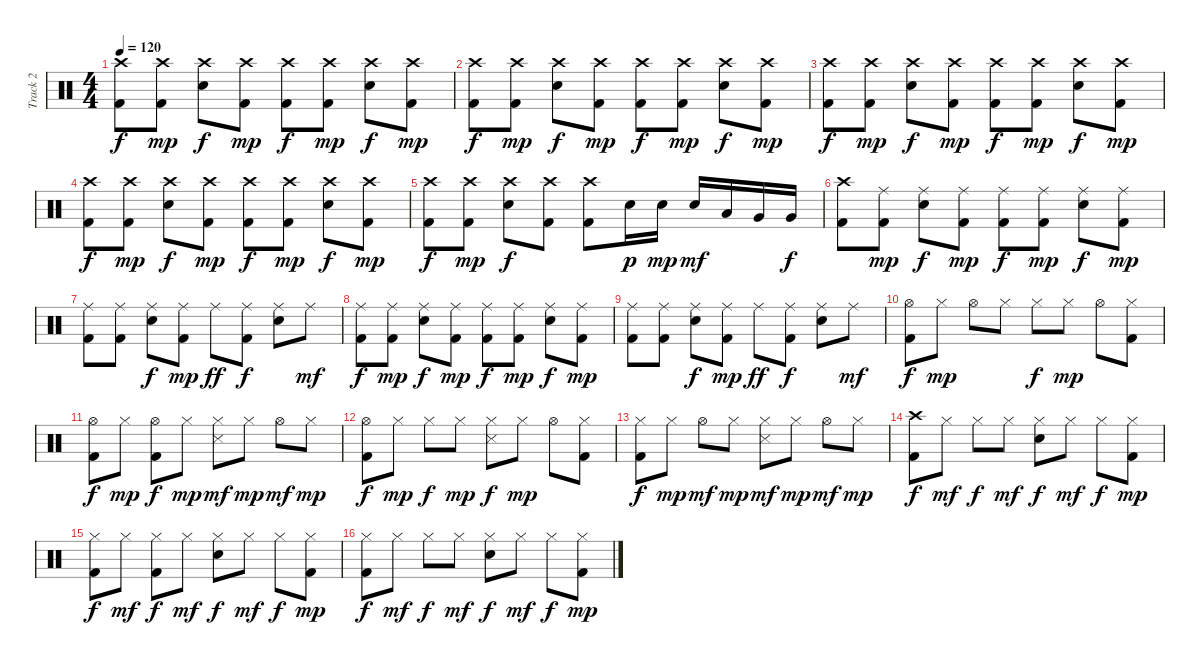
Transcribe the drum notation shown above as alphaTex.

\track ("Track 2" "Track 2") {instrument percussion}
\staff {score}
\articulation defaults
\ts (4 4)
\tempo 120
\clef neutral
\ks c
("Crash high (hit)" "Kick (hit) 2").8{dy f} ("Crash high (hit)" "Kick (hit) 2").8{dy mp} ("Crash high (hit)" "Electric Snare (hit)").8{dy f} ("Crash high (hit)" "Kick (hit) 2").8{dy mp} ("Crash high (hit)" "Kick (hit) 2").8{dy f} ("Crash high (hit)" "Kick (hit) 2").8{dy mp} ("Crash high (hit)" "Electric Snare (hit)").8{dy f} ("Crash high (hit)" "Kick (hit) 2").8{dy mp} |
("Crash high (hit)" "Kick (hit) 2").8{dy f} ("Crash high (hit)" "Kick (hit) 2").8{dy mp} ("Crash high (hit)" "Electric Snare (hit)").8{dy f} ("Crash high (hit)" "Kick (hit) 2").8{dy mp} ("Crash high (hit)" "Kick (hit) 2").8{dy f} ("Crash high (hit)" "Kick (hit) 2").8{dy mp} ("Crash high (hit)" "Electric Snare (hit)").8{dy f} ("Crash high (hit)" "Kick (hit) 2").8{dy mp} |
("Crash high (hit)" "Kick (hit) 2").8{dy f} ("Crash high (hit)" "Kick (hit) 2").8{dy mp} ("Crash high (hit)" "Electric Snare (hit)").8{dy f} ("Crash high (hit)" "Kick (hit) 2").8{dy mp} ("Crash high (hit)" "Kick (hit) 2").8{dy f} ("Crash high (hit)" "Kick (hit) 2").8{dy mp} ("Crash high (hit)" "Electric Snare (hit)").8{dy f} ("Crash high (hit)" "Kick (hit) 2").8{dy mp} |
("Crash high (hit)" "Kick (hit) 2").8{dy f} ("Crash high (hit)" "Kick (hit) 2").8{dy mp} ("Crash high (hit)" "Electric Snare (hit)").8{dy f} ("Crash high (hit)" "Kick (hit) 2").8{dy mp} ("Crash high (hit)" "Kick (hit) 2").8{dy f} ("Crash high (hit)" "Kick (hit) 2").8{dy mp} ("Crash high (hit)" "Electric Snare (hit)").8{dy f} ("Crash high (hit)" "Kick (hit) 2").8{dy mp} |
("Crash high (hit)" "Kick (hit) 2").8{dy f} ("Crash high (hit)" "Kick (hit) 2").8{dy mp} ("Crash high (hit)" "Electric Snare (hit)").8{dy f} ("Crash high (hit)" "Kick (hit) 2").8 ("Crash high (hit)" "Kick (hit) 2").8 "Electric Snare (hit)".16{dy p} "Electric Snare (hit)".16{dy mp} "Electric Snare (hit)".16{dy mf} "Low Tom (hit)".16 "Very Low Tom (hit)".16 "Very Low Tom (hit)".16{dy f} |
("Crash high (hit)" "Kick (hit) 2").8 ("Ride (middle)" "Kick (hit) 2").8{dy mp} ("Ride (middle)" "Electric Snare (hit)").8{dy f} ("Ride (middle)" "Kick (hit) 2").8{dy mp} ("Ride (middle)" "Kick (hit) 2").8{dy f} ("Ride (middle)" "Kick (hit) 2").8{dy mp} ("Ride (middle)" "Electric Snare (hit)").8{dy f} ("Ride (middle)" "Kick (hit) 2").8{dy mp} |
("Ride (middle)" "Kick (hit) 2").8 ("Ride (middle)" "Kick (hit) 2").8 ("Ride (middle)" "Electric Snare (hit)").8{dy f} ("Ride (middle)" "Kick (hit) 2").8{dy mp} "Ride (middle)".8{dy ff} ("Ride (middle)" "Kick (hit) 2").8{dy f} ("Ride (middle)" "Electric Snare (hit)").8 "Ride (middle)".8{dy mf} |
("Ride (middle)" "Kick (hit) 2").8{dy f} ("Ride (middle)" "Kick (hit) 2").8{dy mp} ("Ride (middle)" "Electric Snare (hit)").8{dy f} ("Ride (middle)" "Kick (hit) 2").8{dy mp} ("Ride (middle)" "Kick (hit) 2").8{dy f} ("Ride (middle)" "Kick (hit) 2").8{dy mp} ("Ride (middle)" "Electric Snare (hit)").8{dy f} ("Ride (middle)" "Kick (hit) 2").8{dy mp} |
("Ride (middle)" "Kick (hit) 2").8 ("Ride (middle)" "Kick (hit) 2").8 ("Ride (middle)" "Electric Snare (hit)").8{dy f} ("Ride (middle)" "Kick (hit) 2").8{dy mp} "Ride (middle)".8{dy ff} ("Ride (middle)" "Kick (hit) 2").8{dy f} ("Ride (middle)" "Electric Snare (hit)").8 "Ride (middle)".8{dy mf} |
("Hi-Hat (open)" "Kick (hit) 2").8{dy f} "Hi-Hat (closed)".8{dy mp} "Hi-Hat (open)".8 "Hi-Hat (closed)".8 "Hi-Hat (closed)".8{dy f} "Hi-Hat (closed)".8{dy mp} "Hi-Hat (open)".8 ("Hi-Hat (closed)" "Kick (hit) 2").8 |
("Hi-Hat (open)" "Kick (hit) 2").8{dy f} "Hi-Hat (closed)".8{dy mp} ("Hi-Hat (open)" "Kick (hit) 2").8{dy f} "Hi-Hat (closed)".8{dy mp} ("Hi-Hat (closed)" "Snare (side stick) 3").8{dy mf} "Hi-Hat (closed)".8{dy mp} "Hi-Hat (open)".8{dy mf} "Hi-Hat (closed)".8{dy mp} |
("Hi-Hat (open)" "Kick (hit) 2").8{dy f} "Hi-Hat (closed)".8{dy mp} "Hi-Hat (closed)".8{dy f} "Hi-Hat (closed)".8{dy mp} ("Hi-Hat (closed)" "Snare (side stick) 3").8{dy f} "Hi-Hat (closed)".8{dy mp} "Hi-Hat (open)".8 ("Hi-Hat (closed)" "Kick (hit) 2").8 |
("Hi-Hat (closed)" "Kick (hit) 2").8{dy f} "Hi-Hat (closed)".8{dy mp} "Hi-Hat (open)".8{dy mf} "Hi-Hat (closed)".8{dy mp} ("Hi-Hat (closed)" "Snare (side stick) 3").8{dy mf} "Hi-Hat (closed)".8{dy mp} "Hi-Hat (open)".8{dy mf} "Hi-Hat (closed)".8{dy mp} |
("Crash high (hit)" "Kick (hit) 2").8{dy f} "Hi-Hat (closed)".8{dy mf} "Hi-Hat (closed)".8{dy f} "Hi-Hat (closed)".8{dy mf} ("Hi-Hat (closed)" "Electric Snare (hit)").8{dy f} "Hi-Hat (closed)".8{dy mf} "Hi-Hat (closed)".8{dy f} ("Hi-Hat (closed)" "Kick (hit) 2").8{dy mp} |
("Hi-Hat (closed)" "Kick (hit) 2").8{dy f} "Hi-Hat (closed)".8{dy mf} ("Hi-Hat (closed)" "Kick (hit) 2").8{dy f} "Hi-Hat (closed)".8{dy mf} ("Hi-Hat (closed)" "Electric Snare (hit)").8{dy f} "Hi-Hat (closed)".8{dy mf} "Hi-Hat (closed)".8{dy f} ("Hi-Hat (closed)" "Kick (hit) 2").8{dy mp} |
("Hi-Hat (closed)" "Kick (hit) 2").8{dy f} "Hi-Hat (closed)".8{dy mf} "Hi-Hat (closed)".8{dy f} "Hi-Hat (closed)".8{dy mf} ("Hi-Hat (closed)" "Electric Snare (hit)").8{dy f} "Hi-Hat (closed)".8{dy mf} "Hi-Hat (closed)".8{dy f} ("Hi-Hat (closed)" "Kick (hit) 2").8{dy mp}
